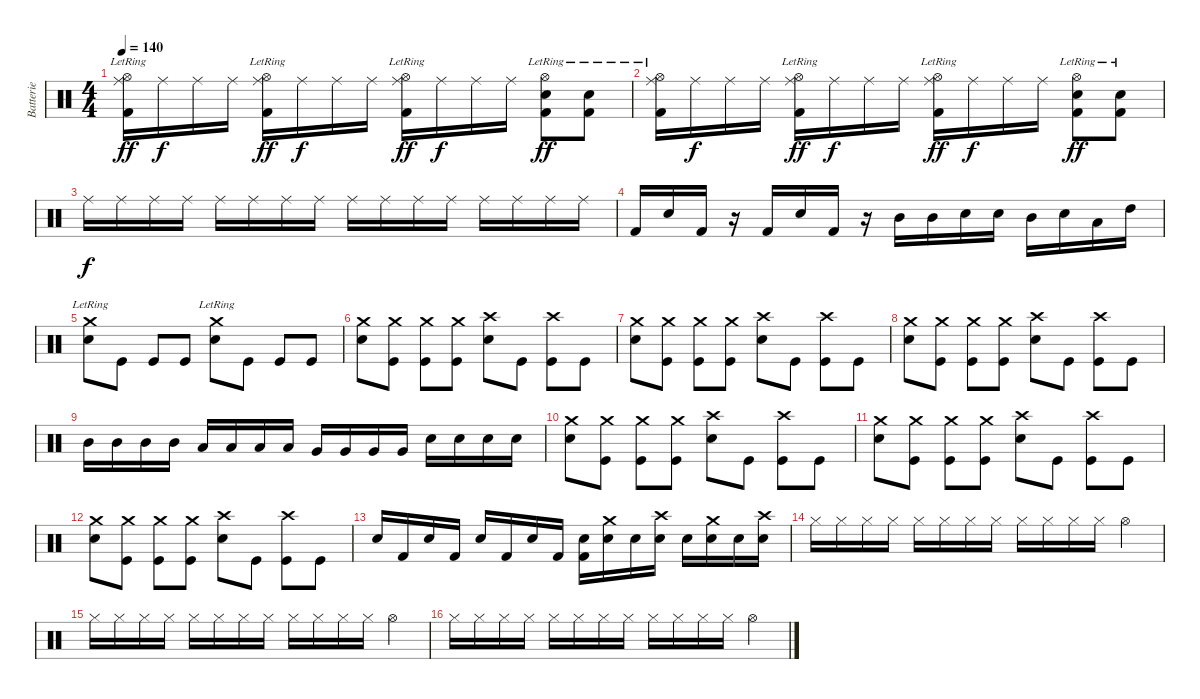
\track ("Batterie" "Batterie") {instrument percussion}
\staff {score}
\articulation defaults
\ts (4 4)
\tempo 140
\clef neutral
\ks c
("Ride (middle)" "Hi-Hat (open)"{lr} "Kick (hit) 2"{lr}).16{dy ff} "Ride (middle)".16{dy f} "Ride (middle)".16 "Ride (middle)".16 ("Ride (middle)" "Hi-Hat (open)"{lr} "Kick (hit) 2"{lr}).16{dy ff} "Ride (middle)".16{dy f} "Ride (middle)".16 "Ride (middle)".16 ("Ride (middle)" "Hi-Hat (open)"{lr} "Kick (hit) 2"{lr}).16{dy ff} "Ride (middle)".16{dy f} "Ride (middle)".16 "Ride (middle)".16 ("Snare (hit) 2" "Hi-Hat (open)" "Kick (hit) 2"{lr}).8{dy ff} ("Snare (hit) 2" "Kick (hit) 2"{lr}).8 |
("Ride (middle)" "Hi-Hat (open)"{lr} "Kick (hit) 2"{lr}).16 "Ride (middle)".16{dy f} "Ride (middle)".16 "Ride (middle)".16 ("Ride (middle)" "Hi-Hat (open)"{lr} "Kick (hit) 2"{lr}).16{dy ff} "Ride (middle)".16{dy f} "Ride (middle)".16 "Ride (middle)".16 ("Ride (middle)" "Hi-Hat (open)"{lr} "Kick (hit) 2"{lr}).16{dy ff} "Ride (middle)".16{dy f} "Ride (middle)".16 "Ride (middle)".16 ("Snare (hit) 2" "Hi-Hat (open)" "Kick (hit) 2"{lr}).8{dy ff} ("Snare (hit) 2" "Kick (hit) 2"{lr}).8 |
"Ride (middle)".16{dy f} "Ride (middle)".16 "Ride (middle)".16 "Ride (middle)".16 "Ride (middle)".16 "Ride (middle)".16 "Ride (middle)".16 "Ride (middle)".16 "Ride (middle)".16 "Ride (middle)".16 "Ride (middle)".16 "Ride (middle)".16 "Ride (middle)".16 "Ride (middle)".16 "Ride (middle)".16 "Ride (middle)".16 |
"Kick (hit) 2".16 "Snare (hit) 2".16 "Kick (hit) 2".16 r.16 "Kick (hit) 2".16 "Snare (hit) 2".16 "Kick (hit) 2".16 r.16 "Mid Tom (hit)".16 "Mid Tom (hit)".16 "Snare (hit) 2".16 "Snare (hit) 2".16 "Mid Tom (hit)".16 "Snare (hit) 2".16 "Low Tom (hit)".16 "High Tom (hit)".16 |
("Crash medium (hit)"{lr} "Snare (hit) 2").8 "Kick (hit)".8 "Kick (hit)".8 "Kick (hit)".8 ("Crash medium (hit)"{lr} "Snare (hit) 2").8 "Kick (hit)".8 "Kick (hit)".8 "Kick (hit)".8 |
("Crash medium (hit)" "Snare (hit) 2").8 ("Crash medium (hit)" "Kick (hit)").8 ("Crash medium (hit)" "Kick (hit)").8 ("Crash medium (hit)" "Kick (hit)").8 ("Crash high (hit)" "Snare (hit) 2").8 "Kick (hit)".8 ("Crash high (hit)" "Kick (hit)").8 "Kick (hit)".8 |
("Crash medium (hit)" "Snare (hit) 2").8 ("Crash medium (hit)" "Kick (hit)").8 ("Crash medium (hit)" "Kick (hit)").8 ("Crash medium (hit)" "Kick (hit)").8 ("Crash high (hit)" "Snare (hit) 2").8 "Kick (hit)".8 ("Crash high (hit)" "Kick (hit)").8 "Kick (hit)".8 |
("Crash medium (hit)" "Snare (hit) 2").8 ("Crash medium (hit)" "Kick (hit)").8 ("Crash medium (hit)" "Kick (hit)").8 ("Crash medium (hit)" "Kick (hit)").8 ("Crash high (hit)" "Snare (hit) 2").8 "Kick (hit)".8 ("Crash high (hit)" "Kick (hit)").8 "Kick (hit)".8 |
"Mid Tom (hit)".16 "Mid Tom (hit)".16 "Mid Tom (hit)".16 "Mid Tom (hit)".16 "Low Tom (hit)".16 "Low Tom (hit)".16 "Low Tom (hit)".16 "Low Tom (hit)".16 "Very Low Tom (hit)".16 "Very Low Tom (hit)".16 "Very Low Tom (hit)".16 "Very Low Tom (hit)".16 "Snare (hit) 2".16 "Snare (hit) 2".16 "Snare (hit) 2".16 "Snare (hit) 2".16 |
("Crash medium (hit)" "Snare (hit) 2").8 ("Crash medium (hit)" "Kick (hit)").8 ("Crash medium (hit)" "Kick (hit)").8 ("Crash medium (hit)" "Kick (hit)").8 ("Crash high (hit)" "Snare (hit) 2").8 "Kick (hit)".8 ("Crash high (hit)" "Kick (hit)").8 "Kick (hit)".8 |
("Crash medium (hit)" "Snare (hit) 2").8 ("Crash medium (hit)" "Kick (hit)").8 ("Crash medium (hit)" "Kick (hit)").8 ("Crash medium (hit)" "Kick (hit)").8 ("Crash high (hit)" "Snare (hit) 2").8 "Kick (hit)".8 ("Crash high (hit)" "Kick (hit)").8 "Kick (hit)".8 |
("Crash medium (hit)" "Snare (hit) 2").8 ("Crash medium (hit)" "Kick (hit)").8 ("Crash medium (hit)" "Kick (hit)").8 ("Crash medium (hit)" "Kick (hit)").8 ("Crash high (hit)" "Snare (hit) 2").8 "Kick (hit)".8 ("Crash high (hit)" "Kick (hit)").8 "Kick (hit)".8 |
"Snare (hit) 2".16 "Kick (hit) 2".16 "Snare (hit) 2".16 "Kick (hit) 2".16 "Snare (hit) 2".16 "Kick (hit) 2".16 "Snare (hit) 2".16 "Kick (hit) 2".16 ("Snare (hit) 2" "Kick (hit) 2").16 ("Crash medium (hit)" "Snare (hit) 2").16 "Snare (hit) 2".16 ("Crash high (hit)" "Snare (hit) 2").16 "Snare (hit) 2".16 ("Crash medium (hit)" "Snare (hit) 2").16 "Snare (hit) 2".16 ("Crash high (hit)" "Snare (hit) 2").16 |
"Hi-Hat (closed)".16 "Hi-Hat (closed)".16 "Hi-Hat (closed)".16 "Hi-Hat (closed)".16 "Hi-Hat (closed)".16 "Hi-Hat (closed)".16 "Hi-Hat (closed)".16 "Hi-Hat (closed)".16 "Hi-Hat (closed)".16 "Hi-Hat (closed)".16 "Hi-Hat (closed)".16 "Hi-Hat (closed)".16 "Hi-Hat (open)".4 |
"Hi-Hat (closed)".16 "Hi-Hat (closed)".16 "Hi-Hat (closed)".16 "Hi-Hat (closed)".16 "Hi-Hat (closed)".16 "Hi-Hat (closed)".16 "Hi-Hat (closed)".16 "Hi-Hat (closed)".16 "Hi-Hat (closed)".16 "Hi-Hat (closed)".16 "Hi-Hat (closed)".16 "Hi-Hat (closed)".16 "Hi-Hat (open)".4 |
"Hi-Hat (closed)".16 "Hi-Hat (closed)".16 "Hi-Hat (closed)".16 "Hi-Hat (closed)".16 "Hi-Hat (closed)".16 "Hi-Hat (closed)".16 "Hi-Hat (closed)".16 "Hi-Hat (closed)".16 "Hi-Hat (closed)".16 "Hi-Hat (closed)".16 "Hi-Hat (closed)".16 "Hi-Hat (closed)".16 "Hi-Hat (open)".4
